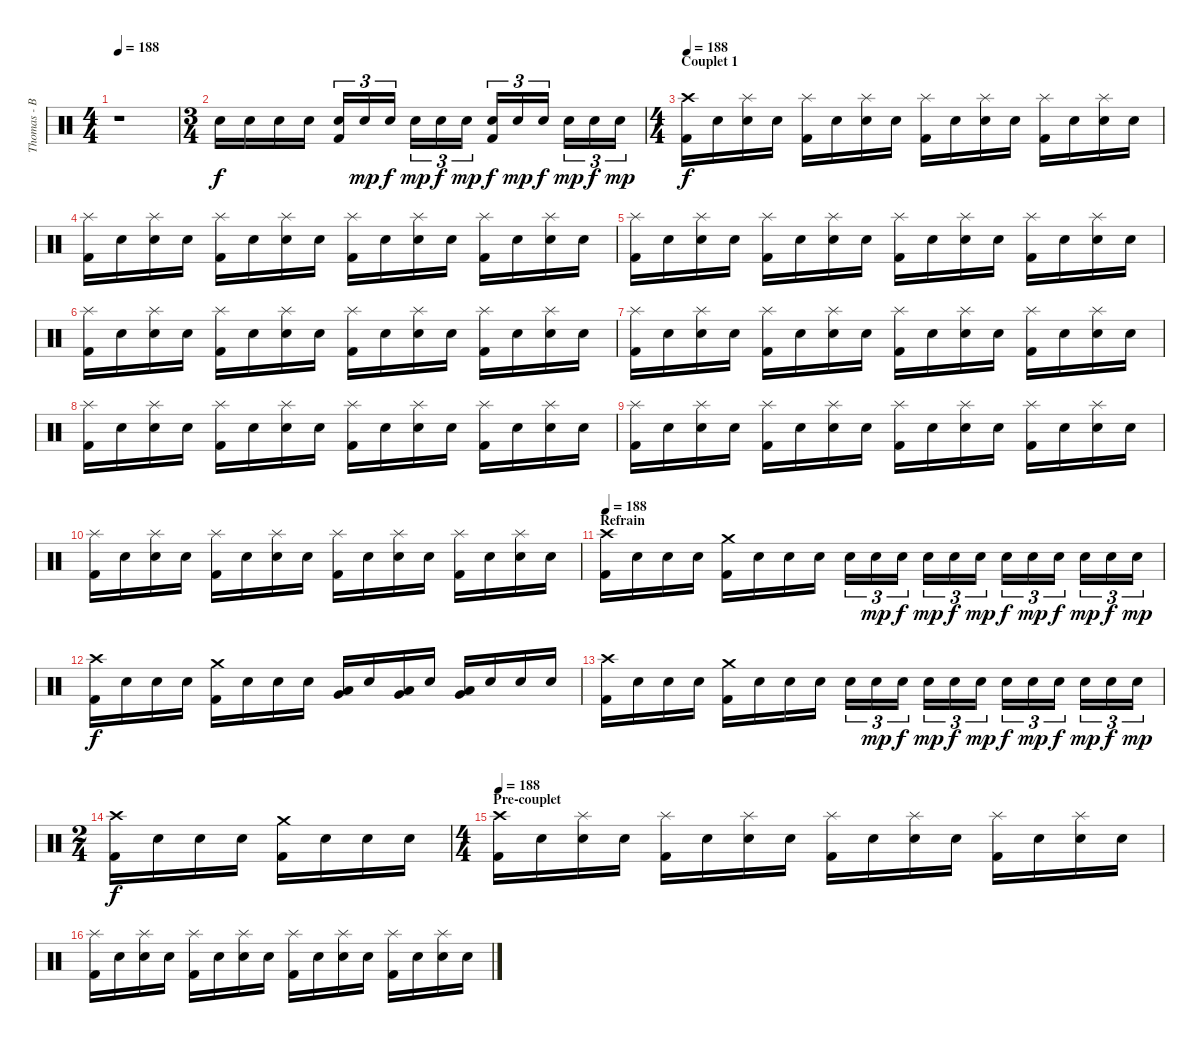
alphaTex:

\track ("Thomas - Batterie" "Thomas - B") {instrument percussion}
\staff {score}
\articulation defaults
\ts (4 4)
\tempo 188
\clef neutral
\ks c
r.1{dy f} |
\ts (3 4)
"Snare (hit)".16 "Snare (hit)".16 "Snare (hit)".16 "Snare (hit)".16 ("Electric Snare (hit)" "Kick (hit) 2").16{tu (3 2)} "Electric Snare (hit)".16{tu (3 2) dy mp} "Electric Snare (hit)".16{tu (3 2) dy f} "Electric Snare (hit)".16{tu (3 2) dy mp} "Electric Snare (hit)".16{tu (3 2) dy f} "Electric Snare (hit)".16{tu (3 2) dy mp} ("Electric Snare (hit)" "Kick (hit) 2").16{tu (3 2) dy f} "Electric Snare (hit)".16{tu (3 2) dy mp} "Electric Snare (hit)".16{tu (3 2) dy f} "Electric Snare (hit)".16{tu (3 2) dy mp} "Electric Snare (hit)".16{tu (3 2) dy f} "Electric Snare (hit)".16{tu (3 2) dy mp} |
\ts (4 4)
\section ("" "Couplet 1")
\tempo 188
("Crash high (hit)" "Kick (hit) 2").16{dy f volume 16 balance 8} "Snare (hit)".16 ("Splash (hit)" "Electric Snare (hit)").16 "Snare (hit)".16 ("Splash (hit)" "Kick (hit) 2").16 "Snare (hit)".16 ("Splash (hit)" "Electric Snare (hit)").16 "Snare (hit)".16 ("Splash (hit)" "Kick (hit) 2").16 "Snare (hit)".16 ("Splash (hit)" "Electric Snare (hit)").16 "Snare (hit)".16 ("Splash (hit)" "Kick (hit) 2").16 "Snare (hit)".16 ("Splash (hit)" "Electric Snare (hit)").16 "Snare (hit)".16 |
("Splash (hit)" "Kick (hit) 2").16 "Snare (hit)".16 ("Splash (hit)" "Electric Snare (hit)").16 "Snare (hit)".16 ("Splash (hit)" "Kick (hit) 2").16 "Snare (hit)".16 ("Splash (hit)" "Electric Snare (hit)").16 "Snare (hit)".16 ("Splash (hit)" "Kick (hit) 2").16 "Snare (hit)".16 ("Splash (hit)" "Electric Snare (hit)").16 "Snare (hit)".16 ("Splash (hit)" "Kick (hit) 2").16 "Snare (hit)".16 ("Splash (hit)" "Electric Snare (hit)").16 "Snare (hit)".16 |
("Splash (hit)" "Kick (hit) 2").16 "Snare (hit)".16 ("Splash (hit)" "Electric Snare (hit)").16 "Snare (hit)".16 ("Splash (hit)" "Kick (hit) 2").16 "Snare (hit)".16 ("Splash (hit)" "Electric Snare (hit)").16 "Snare (hit)".16 ("Splash (hit)" "Kick (hit) 2").16 "Snare (hit)".16 ("Splash (hit)" "Electric Snare (hit)").16 "Snare (hit)".16 ("Splash (hit)" "Kick (hit) 2").16 "Snare (hit)".16 ("Splash (hit)" "Electric Snare (hit)").16 "Snare (hit)".16 |
("Splash (hit)" "Kick (hit) 2").16 "Snare (hit)".16 ("Splash (hit)" "Electric Snare (hit)").16 "Snare (hit)".16 ("Splash (hit)" "Kick (hit) 2").16 "Snare (hit)".16 ("Splash (hit)" "Electric Snare (hit)").16 "Snare (hit)".16 ("Splash (hit)" "Kick (hit) 2").16 "Snare (hit)".16 ("Splash (hit)" "Electric Snare (hit)").16 "Snare (hit)".16 ("Splash (hit)" "Kick (hit) 2").16 "Snare (hit)".16 ("Splash (hit)" "Electric Snare (hit)").16 "Snare (hit)".16 |
("Splash (hit)" "Kick (hit) 2").16 "Snare (hit)".16 ("Splash (hit)" "Electric Snare (hit)").16 "Snare (hit)".16 ("Splash (hit)" "Kick (hit) 2").16 "Snare (hit)".16 ("Splash (hit)" "Electric Snare (hit)").16 "Snare (hit)".16 ("Splash (hit)" "Kick (hit) 2").16 "Snare (hit)".16 ("Splash (hit)" "Electric Snare (hit)").16 "Snare (hit)".16 ("Splash (hit)" "Kick (hit) 2").16 "Snare (hit)".16 ("Splash (hit)" "Electric Snare (hit)").16 "Snare (hit)".16 |
("Splash (hit)" "Kick (hit) 2").16 "Snare (hit)".16 ("Splash (hit)" "Electric Snare (hit)").16 "Snare (hit)".16 ("Splash (hit)" "Kick (hit) 2").16 "Snare (hit)".16 ("Splash (hit)" "Electric Snare (hit)").16 "Snare (hit)".16 ("Splash (hit)" "Kick (hit) 2").16 "Snare (hit)".16 ("Splash (hit)" "Electric Snare (hit)").16 "Snare (hit)".16 ("Splash (hit)" "Kick (hit) 2").16 "Snare (hit)".16 ("Splash (hit)" "Electric Snare (hit)").16 "Snare (hit)".16 |
("Splash (hit)" "Kick (hit) 2").16 "Snare (hit)".16 ("Splash (hit)" "Electric Snare (hit)").16 "Snare (hit)".16 ("Splash (hit)" "Kick (hit) 2").16 "Snare (hit)".16 ("Splash (hit)" "Electric Snare (hit)").16 "Snare (hit)".16 ("Splash (hit)" "Kick (hit) 2").16 "Snare (hit)".16 ("Splash (hit)" "Electric Snare (hit)").16 "Snare (hit)".16 ("Splash (hit)" "Kick (hit) 2").16 "Snare (hit)".16 ("Splash (hit)" "Electric Snare (hit)").16 "Snare (hit)".16 |
("Splash (hit)" "Kick (hit) 2").16 "Snare (hit)".16 ("Splash (hit)" "Electric Snare (hit)").16 "Snare (hit)".16 ("Splash (hit)" "Kick (hit) 2").16 "Snare (hit)".16 ("Splash (hit)" "Electric Snare (hit)").16 "Snare (hit)".16 ("Splash (hit)" "Kick (hit) 2").16 "Snare (hit)".16 ("Splash (hit)" "Electric Snare (hit)").16 "Snare (hit)".16 ("Splash (hit)" "Kick (hit) 2").16 "Snare (hit)".16 ("Splash (hit)" "Electric Snare (hit)").16 "Snare (hit)".16 |
\section ("" "Refrain")
\tempo 188
("Crash high (hit)" "Kick (hit) 2").16{volume 16 balance 8} "Snare (hit)".16 "Snare (hit)".16 "Snare (hit)".16 ("Crash medium (hit)" "Kick (hit) 2").16 "Snare (hit)".16 "Snare (hit)".16 "Snare (hit)".16 "Electric Snare (hit)".16{tu (3 2)} "Electric Snare (hit)".16{tu (3 2) dy mp} "Electric Snare (hit)".16{tu (3 2) dy f} "Electric Snare (hit)".16{tu (3 2) dy mp} "Electric Snare (hit)".16{tu (3 2) dy f} "Electric Snare (hit)".16{tu (3 2) dy mp} "Electric Snare (hit)".16{tu (3 2) dy f} "Electric Snare (hit)".16{tu (3 2) dy mp} "Electric Snare (hit)".16{tu (3 2) dy f} "Electric Snare (hit)".16{tu (3 2) dy mp} "Electric Snare (hit)".16{tu (3 2) dy f} "Electric Snare (hit)".16{tu (3 2) dy mp} |
("Crash high (hit)" "Kick (hit) 2").16{dy f} "Snare (hit)".16 "Snare (hit)".16 "Snare (hit)".16 ("Crash medium (hit)" "Kick (hit) 2").16 "Snare (hit)".16 "Snare (hit)".16 "Snare (hit)".16 ("Very Low Tom (hit)" "Low Floor Tom (hit)").16 "Snare (hit)".16 ("Very Low Tom (hit)" "Low Floor Tom (hit)").16 "Snare (hit)".16 ("Very Low Tom (hit)" "Low Floor Tom (hit)").16 "Snare (hit)".16 "Snare (hit)".16 "Snare (hit)".16 |
("Crash high (hit)" "Kick (hit) 2").16 "Snare (hit)".16 "Snare (hit)".16 "Snare (hit)".16 ("Crash medium (hit)" "Kick (hit) 2").16 "Snare (hit)".16 "Snare (hit)".16 "Snare (hit)".16 "Electric Snare (hit)".16{tu (3 2)} "Electric Snare (hit)".16{tu (3 2) dy mp} "Electric Snare (hit)".16{tu (3 2) dy f} "Electric Snare (hit)".16{tu (3 2) dy mp} "Electric Snare (hit)".16{tu (3 2) dy f} "Electric Snare (hit)".16{tu (3 2) dy mp} "Electric Snare (hit)".16{tu (3 2) dy f} "Electric Snare (hit)".16{tu (3 2) dy mp} "Electric Snare (hit)".16{tu (3 2) dy f} "Electric Snare (hit)".16{tu (3 2) dy mp} "Electric Snare (hit)".16{tu (3 2) dy f} "Electric Snare (hit)".16{tu (3 2) dy mp} |
\ts (2 4)
("Crash high (hit)" "Kick (hit) 2").16{dy f} "Snare (hit)".16 "Snare (hit)".16 "Snare (hit)".16 ("Crash medium (hit)" "Kick (hit) 2").16 "Snare (hit)".16 "Snare (hit)".16 "Snare (hit)".16 |
\ts (4 4)
\section ("" "Pre-couplet")
\tempo 188
("Crash high (hit)" "Kick (hit) 2").16{volume 16 balance 8} "Snare (hit)".16 ("Splash (hit)" "Electric Snare (hit)").16 "Snare (hit)".16 ("Splash (hit)" "Kick (hit) 2").16 "Snare (hit)".16 ("Splash (hit)" "Electric Snare (hit)").16 "Snare (hit)".16 ("Splash (hit)" "Kick (hit) 2").16 "Snare (hit)".16 ("Splash (hit)" "Electric Snare (hit)").16 "Snare (hit)".16 ("Splash (hit)" "Kick (hit) 2").16 "Snare (hit)".16 ("Splash (hit)" "Electric Snare (hit)").16 "Snare (hit)".16 |
("Splash (hit)" "Kick (hit) 2").16 "Snare (hit)".16 ("Splash (hit)" "Electric Snare (hit)").16 "Snare (hit)".16 ("Splash (hit)" "Kick (hit) 2").16 "Snare (hit)".16 ("Splash (hit)" "Electric Snare (hit)").16 "Snare (hit)".16 ("Splash (hit)" "Kick (hit) 2").16 "Snare (hit)".16 ("Splash (hit)" "Electric Snare (hit)").16 "Snare (hit)".16 ("Splash (hit)" "Kick (hit) 2").16 "Snare (hit)".16 ("Splash (hit)" "Electric Snare (hit)").16 "Snare (hit)".16
